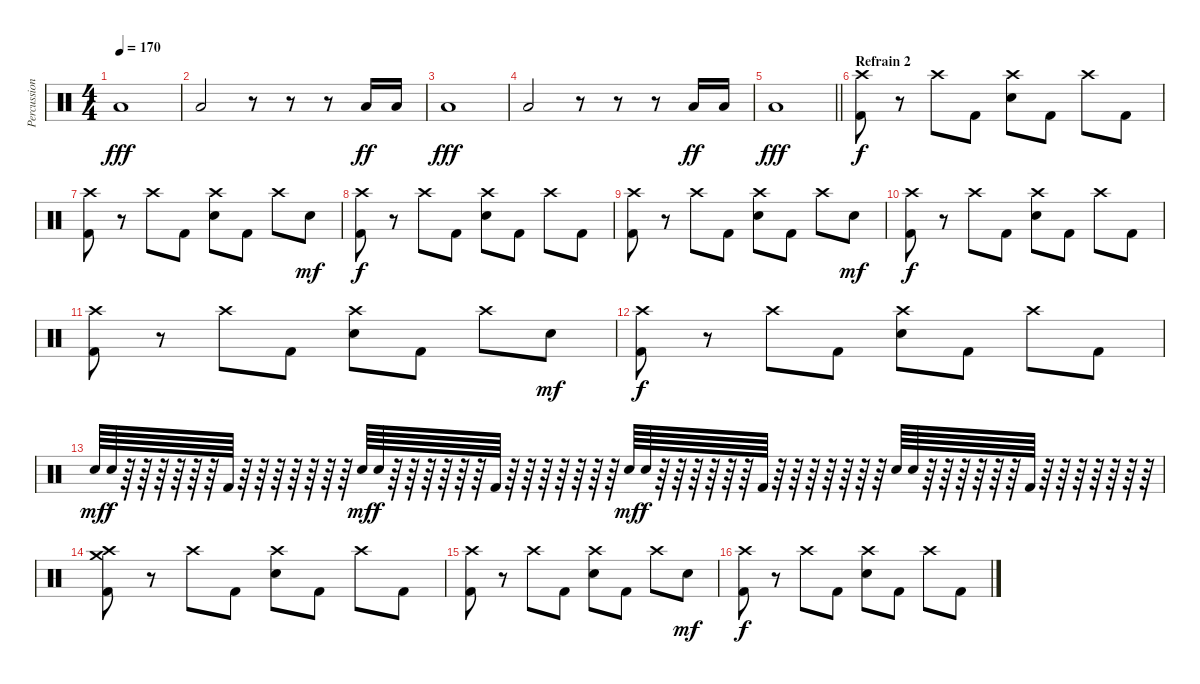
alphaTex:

\track ("Percussions" "Percussion") {instrument percussion}
\staff {score}
\articulation defaults
\ts (4 4)
\tempo 170
\clef neutral
\ks c "Low Floor Tom (hit)".1{dy fff}
|
"Low Floor Tom (hit)".2 r.8 r.8 r.8 "Low Floor Tom (hit)".16{dy ff} "Low Floor Tom (hit)".16 |
"Low Floor Tom (hit)".1{dy fff} |
"Low Floor Tom (hit)".2 r.8 r.8 r.8 "Low Floor Tom (hit)".16{dy ff} "Low Floor Tom (hit)".16 |
\barLineRight lightlight "Low Floor Tom (hit)".1{dy fff}
|
\section ("" "Refrain 2")
("Kick (hit) 2" "Crash high (hit)").8{dy f} r.8 "Crash high (hit)".8 "Kick (hit) 2".8 ("Electric Snare (hit)" "Crash high (hit)").8 "Kick (hit) 2".8 "Crash high (hit)".8 "Kick (hit) 2".8 |
("Kick (hit) 2" "Crash high (hit)").8 r.8 "Crash high (hit)".8 "Kick (hit) 2".8 ("Electric Snare (hit)" "Crash high (hit)").8 "Kick (hit) 2".8 "Crash high (hit)".8 "Electric Snare (hit)".8{dy mf} |
("Kick (hit) 2" "Crash high (hit)").8{dy f} r.8 "Crash high (hit)".8 "Kick (hit) 2".8 ("Electric Snare (hit)" "Crash high (hit)").8 "Kick (hit) 2".8 "Crash high (hit)".8 "Kick (hit) 2".8 |
("Kick (hit) 2" "Crash high (hit)").8 r.8 "Crash high (hit)".8 "Kick (hit) 2".8 ("Electric Snare (hit)" "Crash high (hit)").8 "Kick (hit) 2".8 "Crash high (hit)".8 "Electric Snare (hit)".8{dy mf} |
("Kick (hit) 2" "Crash high (hit)").8{dy f} r.8 "Crash high (hit)".8 "Kick (hit) 2".8 ("Electric Snare (hit)" "Crash high (hit)").8 "Kick (hit) 2".8 "Crash high (hit)".8 "Kick (hit) 2".8 |
("Kick (hit) 2" "Crash high (hit)").8 r.8 "Crash high (hit)".8 "Kick (hit) 2".8 ("Electric Snare (hit)" "Crash high (hit)").8 "Kick (hit) 2".8 "Crash high (hit)".8 "Electric Snare (hit)".8{dy mf} |
("Kick (hit) 2" "Crash high (hit)").8{dy f} r.8 "Crash high (hit)".8 "Kick (hit) 2".8 ("Electric Snare (hit)" "Crash high (hit)").8 "Kick (hit) 2".8 "Crash high (hit)".8 "Kick (hit) 2".8 |
"Electric Snare (hit)".64{dy mf} "Electric Snare (hit)".64{dy f} r.64 r.64 r.64 r.64 r.64 r.64 "Kick (hit) 2".64 r.64 r.64 r.64 r.64 r.64 r.64 r.64 "Electric Snare (hit)".64{dy mf} "Electric Snare (hit)".64{dy f} r.64 r.64 r.64 r.64 r.64 r.64 "Kick (hit) 2".64 r.64 r.64 r.64 r.64 r.64 r.64 r.64 "Electric Snare (hit)".64{dy mf} "Electric Snare (hit)".64{dy f} r.64 r.64 r.64 r.64 r.64 r.64 "Kick (hit) 2".64 r.64 r.64 r.64 r.64 r.64 r.64 r.64 "Electric Snare (hit)".64 "Electric Snare (hit)".64 r.64 r.64 r.64 r.64 r.64 r.64 "Kick (hit) 2".64 r.64 r.64 r.64 r.64 r.64 r.64 r.64 |
("Kick (hit) 2" "Crash medium (hit)" "Crash high (hit)").8 r.8 "Crash high (hit)".8 "Kick (hit) 2".8 ("Electric Snare (hit)" "Crash high (hit)").8 "Kick (hit) 2".8 "Crash high (hit)".8 "Kick (hit) 2".8 |
("Kick (hit) 2" "Crash high (hit)").8 r.8 "Crash high (hit)".8 "Kick (hit) 2".8 ("Electric Snare (hit)" "Crash high (hit)").8 "Kick (hit) 2".8 "Crash high (hit)".8 "Electric Snare (hit)".8{dy mf} |
("Kick (hit) 2" "Crash high (hit)").8{dy f} r.8 "Crash high (hit)".8 "Kick (hit) 2".8 ("Electric Snare (hit)" "Crash high (hit)").8 "Kick (hit) 2".8 "Crash high (hit)".8 "Kick (hit) 2".8
